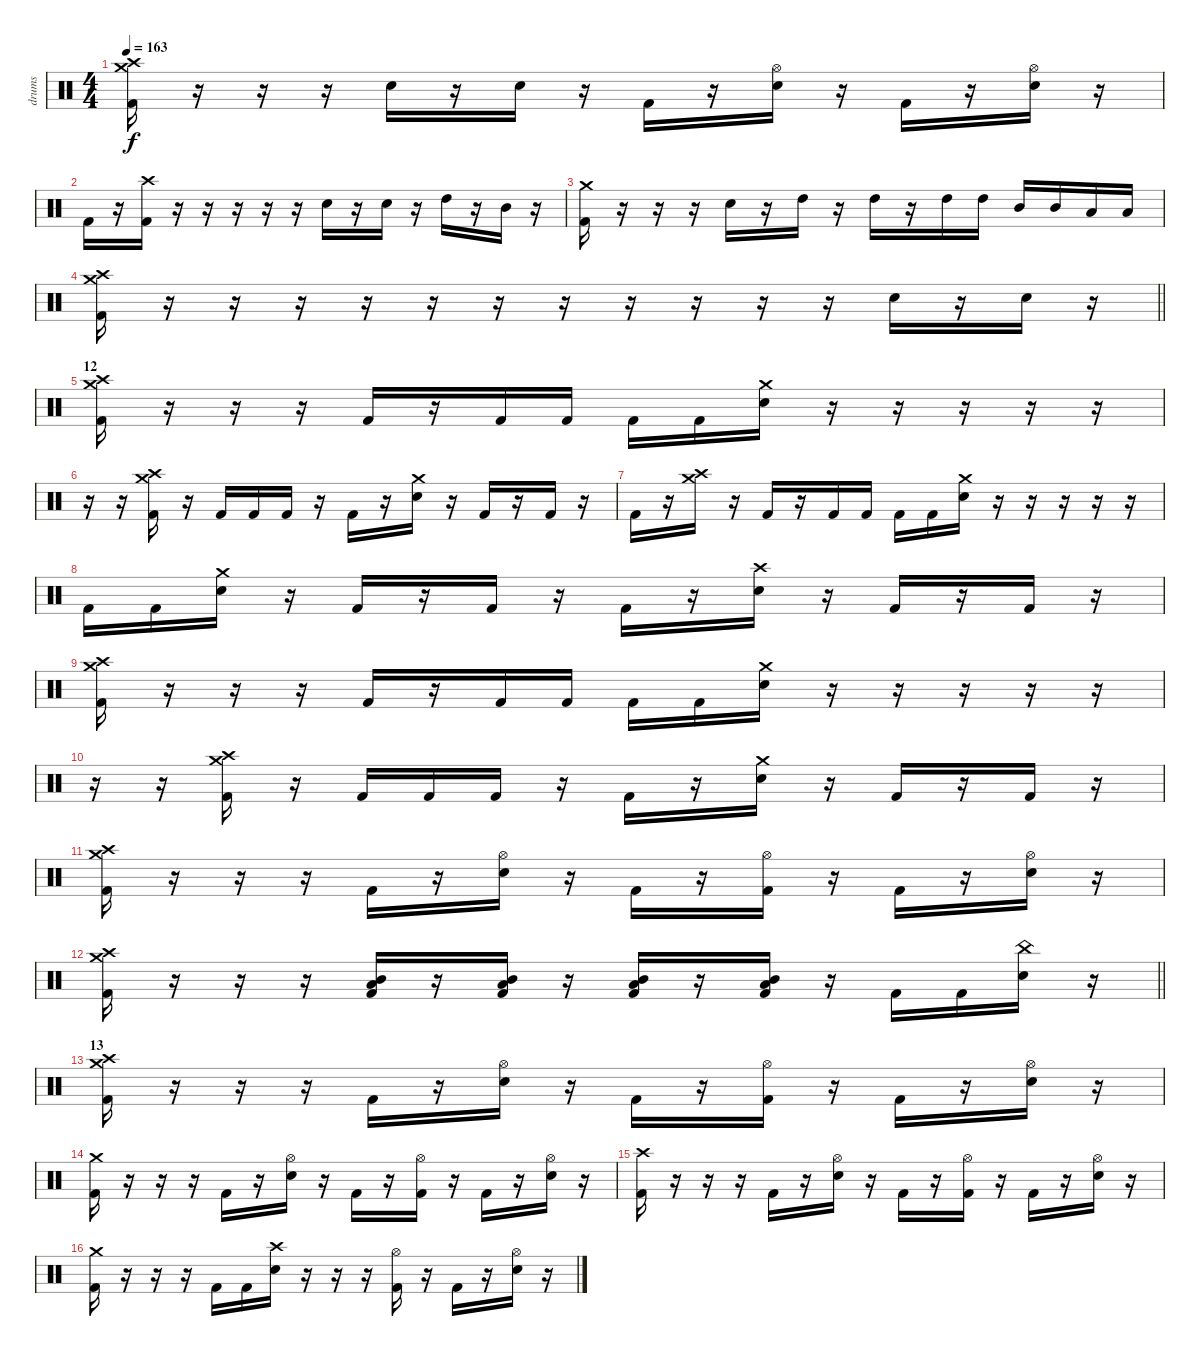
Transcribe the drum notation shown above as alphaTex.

\track ("drums" "drums") {instrument percussion}
\staff {score}
\articulation defaults
\ts (4 4)
\tempo 163
\clef neutral
\ks c
("Crash medium (hit)" "Crash high (hit)" "Kick (hit) 2").16{dy f} r.16 r.16 r.16 "Electric Snare (hit)".16 r.16 "Electric Snare (hit)".16 r.16 "Kick (hit) 2".16 r.16 ("Hi-Hat (open)" "Electric Snare (hit)").16 r.16 "Kick (hit) 2".16 r.16 ("Hi-Hat (open)" "Electric Snare (hit)").16 r.16 |
"Kick (hit) 2".16 r.16 ("Crash high (hit)" "Kick (hit) 2").16 r.16 r.16 r.16 r.16 r.16 "Electric Snare (hit)".16 r.16 "Electric Snare (hit)".16 r.16 "High Tom (hit)".16 r.16 "Mid Tom (hit)".16 r.16 |
("Crash medium (hit)" "Kick (hit) 2").16 r.16 r.16 r.16 "Electric Snare (hit)".16 r.16 "High Tom (hit)".16 r.16 "High Tom (hit)".16 r.16 "High Tom (hit)".16 "High Tom (hit)".16 "Mid Tom (hit)".16 "Mid Tom (hit)".16 "Low Floor Tom (hit)".16 "Low Floor Tom (hit)".16 |
\barLineRight lightlight
("Crash medium (hit)" "Crash high (hit)" "Kick (hit) 2").16 r.16 r.16 r.16 r.16 r.16 r.16 r.16 r.16 r.16 r.16 r.16 "Electric Snare (hit)".16 r.16 "Electric Snare (hit)".16 r.16 |
\section ("" "12")
("Crash medium (hit)" "Crash high (hit)" "Kick (hit) 2").16 r.16 r.16 r.16 "Kick (hit) 2".16 r.16 "Kick (hit) 2".16 "Kick (hit) 2".16 "Kick (hit) 2".16 "Kick (hit) 2".16 ("Crash medium (hit)" "Electric Snare (hit)").16 r.16 r.16 r.16 r.16 r.16 |
r.16 r.16 ("Crash medium (hit)" "Crash high (hit)" "Kick (hit) 2").16 r.16 "Kick (hit) 2".16 "Kick (hit) 2".16 "Kick (hit) 2".16 r.16 "Kick (hit) 2".16 r.16 ("Crash medium (hit)" "Electric Snare (hit)").16 r.16 "Kick (hit) 2".16 r.16 "Kick (hit) 2".16 r.16 |
"Kick (hit) 2".16 r.16 ("Crash medium (hit)" "Crash high (hit)").16 r.16 "Kick (hit) 2".16 r.16 "Kick (hit) 2".16 "Kick (hit) 2".16 "Kick (hit) 2".16 "Kick (hit) 2".16 ("Crash medium (hit)" "Electric Snare (hit)").16 r.16 r.16 r.16 r.16 r.16 |
"Kick (hit) 2".16 "Kick (hit) 2".16 ("Crash medium (hit)" "Electric Snare (hit)").16 r.16 "Kick (hit) 2".16 r.16 "Kick (hit) 2".16 r.16 "Kick (hit) 2".16 r.16 ("Crash high (hit)" "Electric Snare (hit)").16 r.16 "Kick (hit) 2".16 r.16 "Kick (hit) 2".16 r.16 |
("Crash medium (hit)" "Crash high (hit)" "Kick (hit) 2").16 r.16 r.16 r.16 "Kick (hit) 2".16 r.16 "Kick (hit) 2".16 "Kick (hit) 2".16 "Kick (hit) 2".16 "Kick (hit) 2".16 ("Crash medium (hit)" "Electric Snare (hit)").16 r.16 r.16 r.16 r.16 r.16 |
r.16 r.16 ("Crash medium (hit)" "Crash high (hit)" "Kick (hit) 2").16 r.16 "Kick (hit) 2".16 "Kick (hit) 2".16 "Kick (hit) 2".16 r.16 "Kick (hit) 2".16 r.16 ("Crash medium (hit)" "Electric Snare (hit)").16 r.16 "Kick (hit) 2".16 r.16 "Kick (hit) 2".16 r.16 |
("Crash medium (hit)" "Crash high (hit)" "Kick (hit) 2").16 r.16 r.16 r.16 "Kick (hit) 2".16 r.16 ("Hi-Hat (open)" "Electric Snare (hit)").16 r.16 "Kick (hit) 2".16 r.16 ("Hi-Hat (open)" "Kick (hit) 2").16 r.16 "Kick (hit) 2".16 r.16 ("Hi-Hat (open)" "Electric Snare (hit)").16 r.16 |
\barLineRight lightlight
("Crash medium (hit)" "Crash high (hit)" "Kick (hit) 2").16 r.16 r.16 r.16 ("Mid Tom (hit)" "Low Floor Tom (hit)" "Kick (hit) 2").16 r.16 ("Mid Tom (hit)" "Low Floor Tom (hit)" "Kick (hit) 2").16 r.16 ("Mid Tom (hit)" "Low Floor Tom (hit)" "Kick (hit) 2").16 r.16 ("Mid Tom (hit)" "Low Floor Tom (hit)" "Kick (hit) 2").16 r.16 "Kick (hit) 2".16 "Kick (hit) 2".16 ("China (hit)" "Electric Snare (hit)").16 r.16 |
\section ("" "13")
("Crash medium (hit)" "Crash high (hit)" "Kick (hit) 2").16 r.16 r.16 r.16 "Kick (hit) 2".16 r.16 ("Hi-Hat (open)" "Electric Snare (hit)").16 r.16 "Kick (hit) 2".16 r.16 ("Hi-Hat (open)" "Kick (hit) 2").16 r.16 "Kick (hit) 2".16 r.16 ("Hi-Hat (open)" "Electric Snare (hit)").16 r.16 |
("Crash medium (hit)" "Kick (hit) 2").16 r.16 r.16 r.16 "Kick (hit) 2".16 r.16 ("Hi-Hat (open)" "Electric Snare (hit)").16 r.16 "Kick (hit) 2".16 r.16 ("Hi-Hat (open)" "Kick (hit) 2").16 r.16 "Kick (hit) 2".16 r.16 ("Hi-Hat (open)" "Electric Snare (hit)").16 r.16 |
("Crash high (hit)" "Kick (hit) 2").16 r.16 r.16 r.16 "Kick (hit) 2".16 r.16 ("Hi-Hat (open)" "Electric Snare (hit)").16 r.16 "Kick (hit) 2".16 r.16 ("Hi-Hat (open)" "Kick (hit) 2").16 r.16 "Kick (hit) 2".16 r.16 ("Hi-Hat (open)" "Electric Snare (hit)").16 r.16 |
("Crash medium (hit)" "Kick (hit) 2").16 r.16 r.16 r.16 "Kick (hit) 2".16 "Kick (hit) 2".16 ("Crash high (hit)" "Electric Snare (hit)").16 r.16 r.16 r.16 ("Hi-Hat (open)" "Kick (hit) 2").16 r.16 "Kick (hit) 2".16 r.16 ("Hi-Hat (open)" "Electric Snare (hit)").16 r.16
